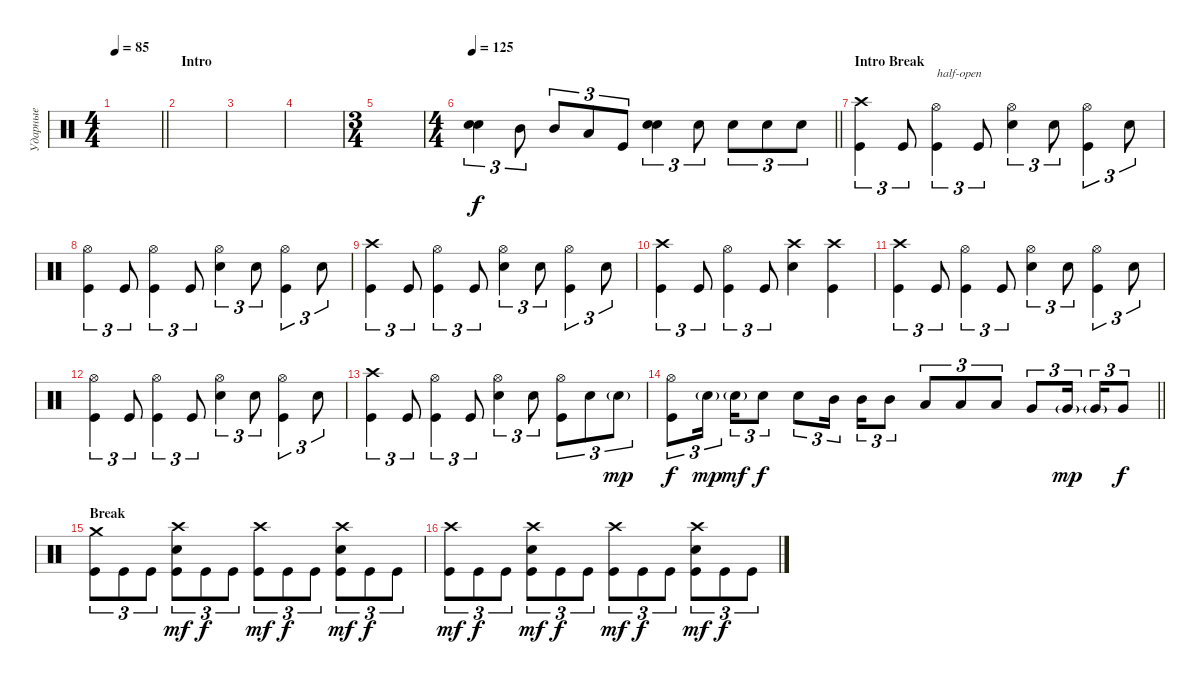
\track ("Ударные" "Ударные") {instrument percussion}
\staff {score}
\articulation defaults
\ts (4 4)
\tempo 85
\clef neutral
\barLineRight lightlight
\ks c
|
\section ("" "Intro")
|
|
|
\ts (3 4)
|
\ts (4 4)
\tempo 125
\barLineRight lightlight
("Snare (hit) 2" "Snare (hit) 2").4{tu (3 2) bd 240} "Mid Tom (hit)".8{tu (3 2)} "Mid Tom (hit)".8{tu (3 2)} "Low Tom (hit)".8{tu (3 2)} "Kick (hit)".8{tu (3 2)} ("Snare (hit) 2" "Snare (hit) 2").4{tu (3 2) bd 240} "Snare (hit) 2".8{tu (3 2)} "Snare (hit) 2".8{tu (3 2)} "Snare (hit) 2".8{tu (3 2)} "Snare (hit) 2".8{tu (3 2)} |
\section ("" "Intro Break")
("Kick (hit)" "Crash high (hit)").4{tu (3 2)} "Kick (hit)".8{tu (3 2)} ("Kick (hit)" "Hi-Hat (open)").4{tu (3 2) txt "half-open"} "Kick (hit)".8{tu (3 2)} ("Snare (hit) 2" "Hi-Hat (open)").4{tu (3 2)} "Snare (hit) 2".8{tu (3 2)} ("Kick (hit)" "Hi-Hat (open)").4{tu (3 2)} "Snare (hit) 2".8{tu (3 2)} |
("Kick (hit)" "Hi-Hat (open)").4{tu (3 2)} "Kick (hit)".8{tu (3 2)} ("Kick (hit)" "Hi-Hat (open)").4{tu (3 2)} "Kick (hit)".8{tu (3 2)} ("Snare (hit) 2" "Hi-Hat (open)").4{tu (3 2)} "Snare (hit) 2".8{tu (3 2)} ("Kick (hit)" "Hi-Hat (open)").4{tu (3 2)} "Snare (hit) 2".8{tu (3 2)} |
("Kick (hit)" "Crash high (hit)").4{tu (3 2)} "Kick (hit)".8{tu (3 2)} ("Kick (hit)" "Hi-Hat (open)").4{tu (3 2)} "Kick (hit)".8{tu (3 2)} ("Snare (hit) 2" "Hi-Hat (open)").4{tu (3 2)} "Snare (hit) 2".8{tu (3 2)} ("Kick (hit)" "Hi-Hat (open)").4{tu (3 2)} "Snare (hit) 2".8{tu (3 2)} |
("Kick (hit)" "Crash high (hit)").4{tu (3 2)} "Kick (hit)".8{tu (3 2)} ("Kick (hit)" "Hi-Hat (open)").4{tu (3 2)} "Kick (hit)".8{tu (3 2)} ("Snare (hit) 2" "Crash high (hit)").4 ("Kick (hit)" "Crash high (hit)").4 |
("Kick (hit)" "Crash high (hit)").4{tu (3 2)} "Kick (hit)".8{tu (3 2)} ("Kick (hit)" "Hi-Hat (open)").4{tu (3 2)} "Kick (hit)".8{tu (3 2)} ("Snare (hit) 2" "Hi-Hat (open)").4{tu (3 2)} "Snare (hit) 2".8{tu (3 2)} ("Kick (hit)" "Hi-Hat (open)").4{tu (3 2)} "Snare (hit) 2".8{tu (3 2)} |
("Kick (hit)" "Hi-Hat (open)").4{tu (3 2)} "Kick (hit)".8{tu (3 2)} ("Kick (hit)" "Hi-Hat (open)").4{tu (3 2)} "Kick (hit)".8{tu (3 2)} ("Snare (hit) 2" "Hi-Hat (open)").4{tu (3 2)} "Snare (hit) 2".8{tu (3 2)} ("Kick (hit)" "Hi-Hat (open)").4{tu (3 2)} "Snare (hit) 2".8{tu (3 2)} |
("Kick (hit)" "Crash high (hit)").4{tu (3 2)} "Kick (hit)".8{tu (3 2)} ("Kick (hit)" "Hi-Hat (open)").4{tu (3 2)} "Kick (hit)".8{tu (3 2)} ("Snare (hit) 2" "Hi-Hat (open)").4{tu (3 2)} "Snare (hit) 2".8{tu (3 2)} ("Kick (hit)" "Hi-Hat (open)").8{tu (3 2)} "Snare (hit) 2".8{tu (3 2)} "Snare (hit) 2"{g}.8{tu (3 2) dy mp} |
\barLineRight lightlight
("Kick (hit)" "Hi-Hat (open)").8{tu (3 2) dy f} "Snare (hit) 2"{g}.16{tu (3 2) dy mp beam splitsecondary} "Snare (hit) 2"{g}.16{tu (3 2) dy mf} "Snare (hit) 2".8{tu (3 2) dy f} "Snare (hit) 2".8{tu (3 2)} "Mid Tom (hit)".16{tu (3 2) beam splitsecondary} "Mid Tom (hit)".16{tu (3 2)} "Mid Tom (hit)".8{tu (3 2)} "Low Tom (hit)".8{tu (3 2)} "Low Tom (hit)".8{tu (3 2)} "Low Tom (hit)".8{tu (3 2)} "Very Low Tom (hit)".8{tu (3 2)} "Very Low Tom (hit)"{g}.16{tu (3 2) dy mp beam splitsecondary} "Very Low Tom (hit)"{g}.16{tu (3 2)} "Very Low Tom (hit)".8{tu (3 2) dy f} |
\section ("" "Break")
("Kick (hit)" "Crash medium (hit)").8{tu (3 2)} "Kick (hit)".8{tu (3 2)} "Kick (hit)".8{tu (3 2)} ("Kick (hit)" "Snare (hit) 2" "Crash high (hit)").8{tu (3 2) dy mf} "Kick (hit)".8{tu (3 2) dy f} "Kick (hit)".8{tu (3 2)} ("Kick (hit)" "Crash high (hit)").8{tu (3 2) dy mf} "Kick (hit)".8{tu (3 2) dy f} "Kick (hit)".8{tu (3 2)} ("Kick (hit)" "Snare (hit) 2" "Crash high (hit)").8{tu (3 2) dy mf} "Kick (hit)".8{tu (3 2) dy f} "Kick (hit)".8{tu (3 2)} |
("Kick (hit)" "Crash high (hit)").8{tu (3 2) dy mf} "Kick (hit)".8{tu (3 2) dy f} "Kick (hit)".8{tu (3 2)} ("Kick (hit)" "Snare (hit) 2" "Crash high (hit)").8{tu (3 2) dy mf} "Kick (hit)".8{tu (3 2) dy f} "Kick (hit)".8{tu (3 2)} ("Kick (hit)" "Crash high (hit)").8{tu (3 2) dy mf} "Kick (hit)".8{tu (3 2) dy f} "Kick (hit)".8{tu (3 2)} ("Kick (hit)" "Snare (hit) 2" "Crash high (hit)").8{tu (3 2) dy mf} "Kick (hit)".8{tu (3 2) dy f} "Kick (hit)".8{tu (3 2)}
